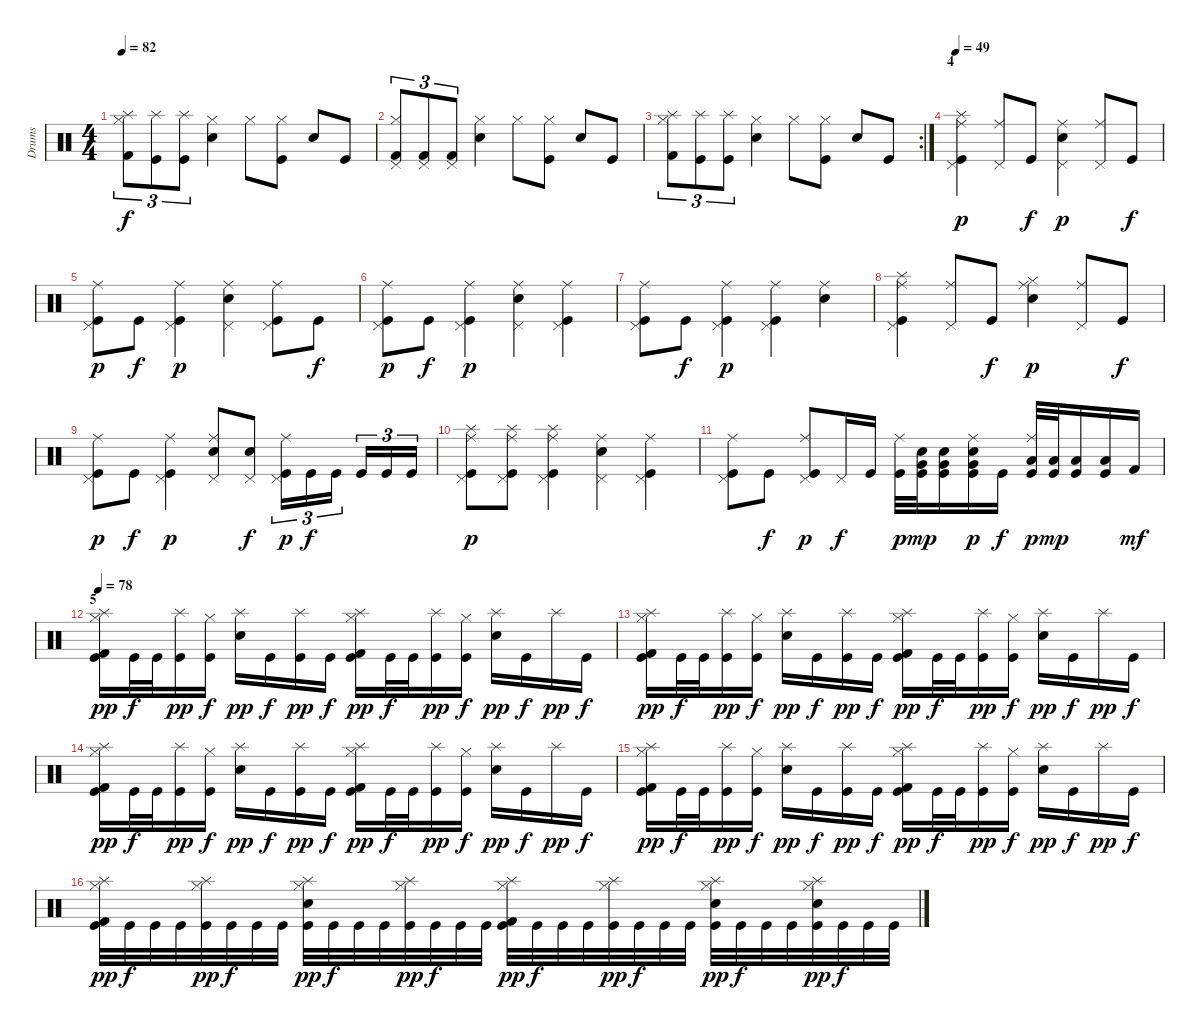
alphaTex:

\track ("Drums" "Drums") {instrument percussion}
\staff {score}
\articulation defaults
\ts (4 4)
\tempo 82
\clef neutral
\ks c
("Kick (hit) 2" "Hi-Hat (closed)" "Splash (hit)").8{tu (3 2) dy f} ("Kick (hit)" "Splash (hit)").8{tu (3 2)} ("Kick (hit)" "Splash (hit)").8{tu (3 2)} ("Electric Snare (hit)" "Hi-Hat (closed)").4 "Hi-Hat (closed)".8 ("Kick (hit)" "Hi-Hat (closed)").8 "Electric Snare (hit)".8 "Kick (hit)".8 |
("Kick (hit) 2" "Hi-Hat (closed)" "Pedal Hi-Hat (hit)").8{tu (3 2)} ("Kick (hit) 2" "Pedal Hi-Hat (hit)").8{tu (3 2)} ("Kick (hit) 2" "Pedal Hi-Hat (hit)").8{tu (3 2)} ("Electric Snare (hit)" "Hi-Hat (closed)").4 "Hi-Hat (closed)".8 ("Kick (hit)" "Hi-Hat (closed)").8 "Electric Snare (hit)".8 "Kick (hit)".8 |
\rc 2
("Kick (hit) 2" "Hi-Hat (closed)" "Splash (hit)").8{tu (3 2)} ("Kick (hit)" "Splash (hit)").8{tu (3 2)} ("Kick (hit)" "Splash (hit)").8{tu (3 2)} ("Electric Snare (hit)" "Hi-Hat (closed)").4 "Hi-Hat (closed)".8 ("Kick (hit)" "Hi-Hat (closed)").8 "Electric Snare (hit)".8 "Kick (hit)".8 |
\section ("" "4")
\tempo 49
("Splash (hit)" "Kick (hit)" "Pedal Hi-Hat (hit)" "Ride (middle)").4{dy p} ("Pedal Hi-Hat (hit)" "Ride (middle)").8 "Kick (hit)".8{dy f} ("Electric Snare (hit)" "Pedal Hi-Hat (hit)" "Ride (middle)").4{dy p} ("Pedal Hi-Hat (hit)" "Ride (middle)").8 "Kick (hit)".8{dy f} |
("Pedal Hi-Hat (hit)" "Kick (hit)" "Ride (middle)").8{dy p} "Kick (hit)".8{dy f} ("Pedal Hi-Hat (hit)" "Kick (hit)" "Ride (middle)").4{dy p} ("Electric Snare (hit)" "Pedal Hi-Hat (hit)" "Ride (middle)").4 ("Pedal Hi-Hat (hit)" "Kick (hit)" "Ride (middle)").8 "Kick (hit)".8{dy f} |
("Pedal Hi-Hat (hit)" "Kick (hit)" "Ride (middle)").8{dy p} "Kick (hit)".8{dy f} ("Pedal Hi-Hat (hit)" "Kick (hit)" "Ride (middle)").4{dy p} ("Pedal Hi-Hat (hit)" "Electric Snare (hit)" "Ride (middle)").4 ("Kick (hit)" "Pedal Hi-Hat (hit)" "Ride (middle)").4 |
("Kick (hit)" "Pedal Hi-Hat (hit)" "Ride (middle)").8 "Kick (hit)".8{dy f} ("Kick (hit)" "Pedal Hi-Hat (hit)" "Ride (middle)").4{dy p} ("Kick (hit)" "Pedal Hi-Hat (hit)" "Ride (middle)").4 ("Electric Snare (hit)" "Ride (middle)").4 |
("Splash (hit)" "Kick (hit)" "Pedal Hi-Hat (hit)" "Ride (middle)").4 ("Pedal Hi-Hat (hit)" "Ride (middle)").8 "Kick (hit)".8{dy f} ("Electric Snare (hit)" "Hi-Hat (closed)" "Ride (middle)").4{dy p} ("Pedal Hi-Hat (hit)" "Ride (middle)").8 "Kick (hit)".8{dy f} |
("Pedal Hi-Hat (hit)" "Kick (hit)" "Ride (middle)").8{dy p} "Kick (hit)".8{dy f} ("Pedal Hi-Hat (hit)" "Kick (hit)" "Ride (middle)").4{dy p} ("Electric Snare (hit)" "Pedal Hi-Hat (hit)" "Ride (middle)").8 ("Electric Snare (hit)" "Pedal Hi-Hat (hit)").8{dy f} ("Pedal Hi-Hat (hit)" "Kick (hit)" "Ride (middle)").16{tu (3 2) dy p} "Kick (hit)".16{tu (3 2) dy f} "Kick (hit)".16{tu (3 2)} "Kick (hit)".16{tu (3 2)} "Kick (hit)".16{tu (3 2)} "Kick (hit)".16{tu (3 2)} |
("Splash (hit)" "Pedal Hi-Hat (hit)" "Kick (hit)" "Ride (middle)").8{dy p} ("Splash (hit)" "Pedal Hi-Hat (hit)" "Kick (hit)" "Ride (middle)").8 ("Splash (hit)" "Pedal Hi-Hat (hit)" "Kick (hit)" "Ride (middle)").4 ("Pedal Hi-Hat (hit)" "Electric Snare (hit)" "Ride (middle)").4 ("Kick (hit)" "Pedal Hi-Hat (hit)" "Ride (middle)").4 |
("Kick (hit)" "Pedal Hi-Hat (hit)" "Ride (middle)").8 "Kick (hit)".8{dy f} ("Kick (hit)" "Pedal Hi-Hat (hit)" "Ride (middle)").8{dy p} "Pedal Hi-Hat (hit)".16{dy f} "Kick (hit)".16 ("Kick (hit)" "Ride (middle)").32{dy p} ("Kick (hit)" "Electric Snare (hit)" "Very Low Tom (hit)").32{dy mp} ("Kick (hit)" "Electric Snare (hit)" "Very Low Tom (hit)").16 ("Kick (hit)" "Electric Snare (hit)" "Very Low Tom (hit)" "Ride (middle)").16{dy p} "Kick (hit)".16{dy f} ("Kick (hit)" "Low Floor Tom (hit)" "Ride (middle)").32{dy p} ("Kick (hit)" "Low Floor Tom (hit)").32{dy mp} ("Kick (hit)" "Low Floor Tom (hit)").16 ("Kick (hit)" "Low Floor Tom (hit)").16 "Kick (hit) 2".16{dy mf} |
\section ("" "5")
\tempo 78
("Kick (hit)" "Kick (hit) 2" "Hi-Hat (closed)" "Splash (hit)").16{dy pp} "Kick (hit)".32{dy f} "Kick (hit)".32 ("Kick (hit)" "Splash (hit)").16{dy pp} ("Kick (hit)" "Hi-Hat (closed)").16{dy f} ("Electric Snare (hit)" "Splash (hit)").16{dy pp} "Kick (hit)".16{dy f} ("Kick (hit)" "Splash (hit)").16{dy pp} "Kick (hit)".16{dy f} ("Kick (hit)" "Kick (hit) 2" "Hi-Hat (closed)" "Splash (hit)").16{dy pp} "Kick (hit)".32{dy f} "Kick (hit)".32 ("Kick (hit)" "Splash (hit)").16{dy pp} ("Kick (hit)" "Hi-Hat (closed)").16{dy f} ("Electric Snare (hit)" "Splash (hit)").16{dy pp} "Kick (hit)".16{dy f} "Splash (hit)".16{dy pp} "Kick (hit)".16{dy f} |
("Kick (hit)" "Kick (hit) 2" "Hi-Hat (closed)" "Splash (hit)").16{dy pp} "Kick (hit)".32{dy f} "Kick (hit)".32 ("Kick (hit)" "Splash (hit)").16{dy pp} ("Kick (hit)" "Hi-Hat (closed)").16{dy f} ("Electric Snare (hit)" "Splash (hit)").16{dy pp} "Kick (hit)".16{dy f} ("Kick (hit)" "Splash (hit)").16{dy pp} "Kick (hit)".16{dy f} ("Kick (hit)" "Kick (hit) 2" "Hi-Hat (closed)" "Splash (hit)").16{dy pp} "Kick (hit)".32{dy f} "Kick (hit)".32 ("Kick (hit)" "Splash (hit)").16{dy pp} ("Kick (hit)" "Hi-Hat (closed)").16{dy f} ("Electric Snare (hit)" "Splash (hit)").16{dy pp} "Kick (hit)".16{dy f} "Splash (hit)".16{dy pp} "Kick (hit)".16{dy f} |
("Kick (hit)" "Kick (hit) 2" "Hi-Hat (closed)" "Splash (hit)").16{dy pp} "Kick (hit)".32{dy f} "Kick (hit)".32 ("Kick (hit)" "Splash (hit)").16{dy pp} ("Kick (hit)" "Hi-Hat (closed)").16{dy f} ("Electric Snare (hit)" "Splash (hit)").16{dy pp} "Kick (hit)".16{dy f} ("Kick (hit)" "Splash (hit)").16{dy pp} "Kick (hit)".16{dy f} ("Kick (hit)" "Kick (hit) 2" "Hi-Hat (closed)" "Splash (hit)").16{dy pp} "Kick (hit)".32{dy f} "Kick (hit)".32 ("Kick (hit)" "Splash (hit)").16{dy pp} ("Kick (hit)" "Hi-Hat (closed)").16{dy f} ("Electric Snare (hit)" "Splash (hit)").16{dy pp} "Kick (hit)".16{dy f} "Splash (hit)".16{dy pp} "Kick (hit)".16{dy f} |
("Kick (hit)" "Kick (hit) 2" "Hi-Hat (closed)" "Splash (hit)").16{dy pp} "Kick (hit)".32{dy f} "Kick (hit)".32 ("Kick (hit)" "Splash (hit)").16{dy pp} ("Kick (hit)" "Hi-Hat (closed)").16{dy f} ("Electric Snare (hit)" "Splash (hit)").16{dy pp} "Kick (hit)".16{dy f} ("Kick (hit)" "Splash (hit)").16{dy pp} "Kick (hit)".16{dy f} ("Kick (hit)" "Kick (hit) 2" "Hi-Hat (closed)" "Splash (hit)").16{dy pp} "Kick (hit)".32{dy f} "Kick (hit)".32 ("Kick (hit)" "Splash (hit)").16{dy pp} ("Kick (hit)" "Hi-Hat (closed)").16{dy f} ("Electric Snare (hit)" "Splash (hit)").16{dy pp} "Kick (hit)".16{dy f} "Splash (hit)".16{dy pp} "Kick (hit)".16{dy f} |
("Kick (hit)" "Kick (hit) 2" "Hi-Hat (closed)" "Splash (hit)").32{dy pp} "Kick (hit)".32{dy f} "Kick (hit)".32 "Kick (hit)".32 ("Kick (hit)" "Hi-Hat (closed)" "Splash (hit)").32{dy pp} "Kick (hit)".32{dy f} "Kick (hit)".32 "Kick (hit)".32 ("Kick (hit)" "Electric Snare (hit)" "Hi-Hat (closed)" "Splash (hit)").32{dy pp} "Kick (hit)".32{dy f} "Kick (hit)".32 "Kick (hit)".32 ("Kick (hit)" "Hi-Hat (closed)" "Splash (hit)").32{dy pp} "Kick (hit)".32{dy f} "Kick (hit)".32 "Kick (hit)".32 ("Kick (hit)" "Kick (hit) 2" "Hi-Hat (closed)" "Splash (hit)").32{dy pp} "Kick (hit)".32{dy f} "Kick (hit)".32 "Kick (hit)".32 ("Kick (hit)" "Hi-Hat (closed)" "Splash (hit)").32{dy pp} "Kick (hit)".32{dy f} "Kick (hit)".32 "Kick (hit)".32 ("Kick (hit)" "Electric Snare (hit)" "Hi-Hat (closed)" "Splash (hit)").32{dy pp} "Kick (hit)".32{dy f} "Kick (hit)".32 "Kick (hit)".32 ("Kick (hit)" "Electric Snare (hit)" "Hi-Hat (closed)" "Splash (hit)").32{dy pp} "Kick (hit)".32{dy f} "Kick (hit)".32 "Kick (hit)".32
